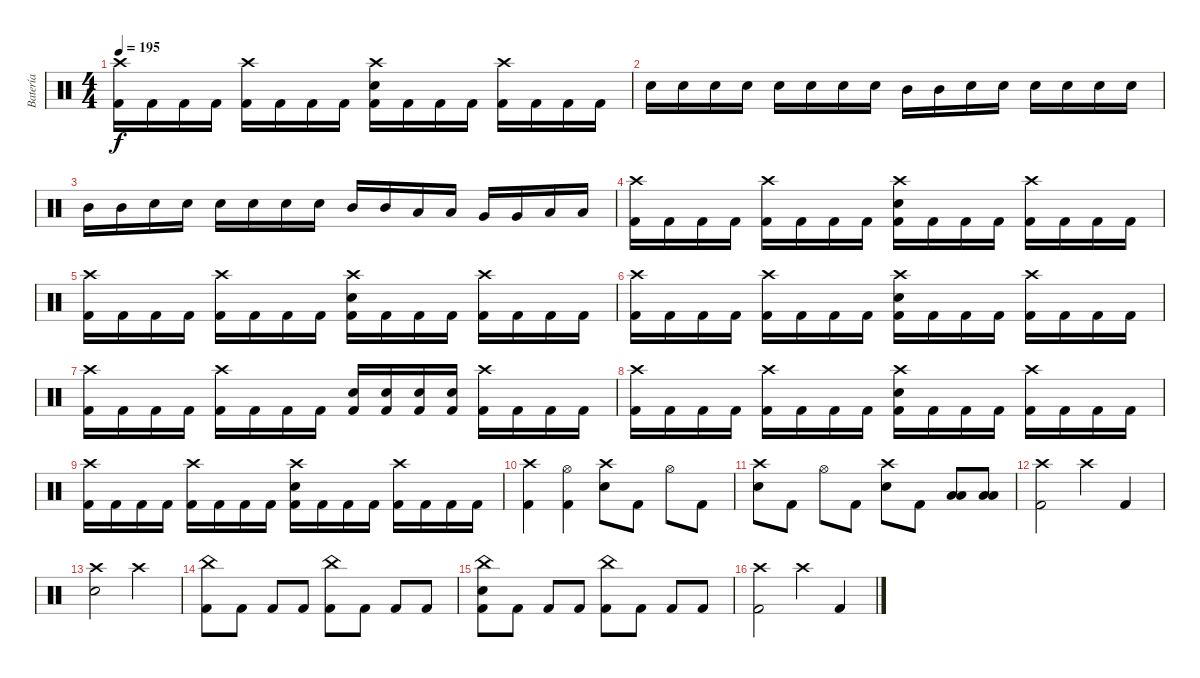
\track ("Batería" "Batería") {instrument percussion}
\staff {score}
\articulation defaults
\ts (4 4)
\tempo 195
\clef neutral
\ks c
("Crash high (hit)" "Kick (hit) 2").16{dy f} "Kick (hit) 2".16 "Kick (hit) 2".16 "Kick (hit) 2".16 ("Crash high (hit)" "Kick (hit) 2").16 "Kick (hit) 2".16 "Kick (hit) 2".16 "Kick (hit) 2".16 ("Crash high (hit)" "Snare (hit) 2" "Kick (hit) 2").16 "Kick (hit) 2".16 "Kick (hit) 2".16 "Kick (hit) 2".16 ("Crash high (hit)" "Kick (hit) 2").16 "Kick (hit) 2".16 "Kick (hit) 2".16 "Kick (hit) 2".16 |
"Snare (hit) 2".16 "Snare (hit) 2".16 "Snare (hit) 2".16 "Snare (hit) 2".16 "Snare (hit) 2".16 "Snare (hit) 2".16 "Snare (hit) 2".16 "Snare (hit) 2".16 "Mid Tom (hit)".16 "Mid Tom (hit)".16 "Snare (hit) 2".16 "Snare (hit) 2".16 "Snare (hit) 2".16 "Snare (hit) 2".16 "Snare (hit) 2".16 "Snare (hit) 2".16 |
"Mid Tom (hit)".16 "Mid Tom (hit)".16 "Snare (hit) 2".16 "Snare (hit) 2".16 "Snare (hit) 2".16 "Snare (hit) 2".16 "Snare (hit) 2".16 "Snare (hit) 2".16 "Mid Tom (hit)".16 "Mid Tom (hit)".16 "Low Tom (hit)".16 "Low Tom (hit)".16 "Very Low Tom (hit)".16 "Very Low Tom (hit)".16 "Low Floor Tom (hit)".16 "Low Floor Tom (hit)".16 |
("Crash high (hit)" "Kick (hit) 2").16 "Kick (hit) 2".16 "Kick (hit) 2".16 "Kick (hit) 2".16 ("Crash high (hit)" "Kick (hit) 2").16 "Kick (hit) 2".16 "Kick (hit) 2".16 "Kick (hit) 2".16 ("Crash high (hit)" "Snare (hit) 2" "Kick (hit) 2").16 "Kick (hit) 2".16 "Kick (hit) 2".16 "Kick (hit) 2".16 ("Crash high (hit)" "Kick (hit) 2").16 "Kick (hit) 2".16 "Kick (hit) 2".16 "Kick (hit) 2".16 |
("Crash high (hit)" "Kick (hit) 2").16 "Kick (hit) 2".16 "Kick (hit) 2".16 "Kick (hit) 2".16 ("Crash high (hit)" "Kick (hit) 2").16 "Kick (hit) 2".16 "Kick (hit) 2".16 "Kick (hit) 2".16 ("Crash high (hit)" "Snare (hit) 2" "Kick (hit) 2").16 "Kick (hit) 2".16 "Kick (hit) 2".16 "Kick (hit) 2".16 ("Crash high (hit)" "Kick (hit) 2").16 "Kick (hit) 2".16 "Kick (hit) 2".16 "Kick (hit) 2".16 |
("Crash high (hit)" "Kick (hit) 2").16 "Kick (hit) 2".16 "Kick (hit) 2".16 "Kick (hit) 2".16 ("Crash high (hit)" "Kick (hit) 2").16 "Kick (hit) 2".16 "Kick (hit) 2".16 "Kick (hit) 2".16 ("Crash high (hit)" "Snare (hit) 2" "Kick (hit) 2").16 "Kick (hit) 2".16 "Kick (hit) 2".16 "Kick (hit) 2".16 ("Crash high (hit)" "Kick (hit) 2").16 "Kick (hit) 2".16 "Kick (hit) 2".16 "Kick (hit) 2".16 |
("Crash high (hit)" "Kick (hit) 2").16 "Kick (hit) 2".16 "Kick (hit) 2".16 "Kick (hit) 2".16 ("Crash high (hit)" "Kick (hit) 2").16 "Kick (hit) 2".16 "Kick (hit) 2".16 "Kick (hit) 2".16 ("Snare (hit) 2" "Kick (hit) 2").16 ("Snare (hit) 2" "Kick (hit) 2").16 ("Snare (hit) 2" "Kick (hit) 2").16 ("Snare (hit) 2" "Kick (hit) 2").16 ("Crash high (hit)" "Kick (hit) 2").16 "Kick (hit) 2".16 "Kick (hit) 2".16 "Kick (hit) 2".16 |
("Crash high (hit)" "Kick (hit) 2").16 "Kick (hit) 2".16 "Kick (hit) 2".16 "Kick (hit) 2".16 ("Crash high (hit)" "Kick (hit) 2").16 "Kick (hit) 2".16 "Kick (hit) 2".16 "Kick (hit) 2".16 ("Crash high (hit)" "Snare (hit) 2" "Kick (hit) 2").16 "Kick (hit) 2".16 "Kick (hit) 2".16 "Kick (hit) 2".16 ("Crash high (hit)" "Kick (hit) 2").16 "Kick (hit) 2".16 "Kick (hit) 2".16 "Kick (hit) 2".16 |
("Crash high (hit)" "Kick (hit) 2").16 "Kick (hit) 2".16 "Kick (hit) 2".16 "Kick (hit) 2".16 ("Crash high (hit)" "Kick (hit) 2").16 "Kick (hit) 2".16 "Kick (hit) 2".16 "Kick (hit) 2".16 ("Crash high (hit)" "Snare (hit) 2" "Kick (hit) 2").16 "Kick (hit) 2".16 "Kick (hit) 2".16 "Kick (hit) 2".16 ("Crash high (hit)" "Kick (hit) 2").16 "Kick (hit) 2".16 "Kick (hit) 2".16 "Kick (hit) 2".16 |
("Crash high (hit)" "Kick (hit) 2").4 ("Hi-Hat (open)" "Kick (hit) 2").4 ("Crash high (hit)" "Snare (hit) 2").8 "Kick (hit) 2".8 "Hi-Hat (open)".8 "Kick (hit) 2".8 |
("Crash high (hit)" "Snare (hit) 2").8 "Kick (hit) 2".8 "Hi-Hat (open)".8 "Kick (hit) 2".8 ("Crash high (hit)" "Snare (hit) 2").8 "Kick (hit) 2".8 ("Low Floor Tom (hit)" "Low Tom (hit)").8 ("Low Floor Tom (hit)" "Low Tom (hit)").8 |
("Crash high (hit)" "Kick (hit) 2").2 "Crash high (hit)".4 "Kick (hit) 2".4 |
("Crash high (hit)" "Snare (hit) 2").2 "Crash high (hit)".2 |
("China (hit)" "Kick (hit) 2").8 "Kick (hit) 2".8 "Kick (hit) 2".8 "Kick (hit) 2".8 ("China (hit)" "Kick (hit) 2").8 "Kick (hit) 2".8 "Kick (hit) 2".8 "Kick (hit) 2".8 |
("China (hit)" "Snare (hit) 2" "Kick (hit) 2").8 "Kick (hit) 2".8 "Kick (hit) 2".8 "Kick (hit) 2".8 ("China (hit)" "Kick (hit) 2").8 "Kick (hit) 2".8 "Kick (hit) 2".8 "Kick (hit) 2".8 |
("Crash high (hit)" "Kick (hit) 2").2 "Crash high (hit)".4 "Kick (hit) 2".4
